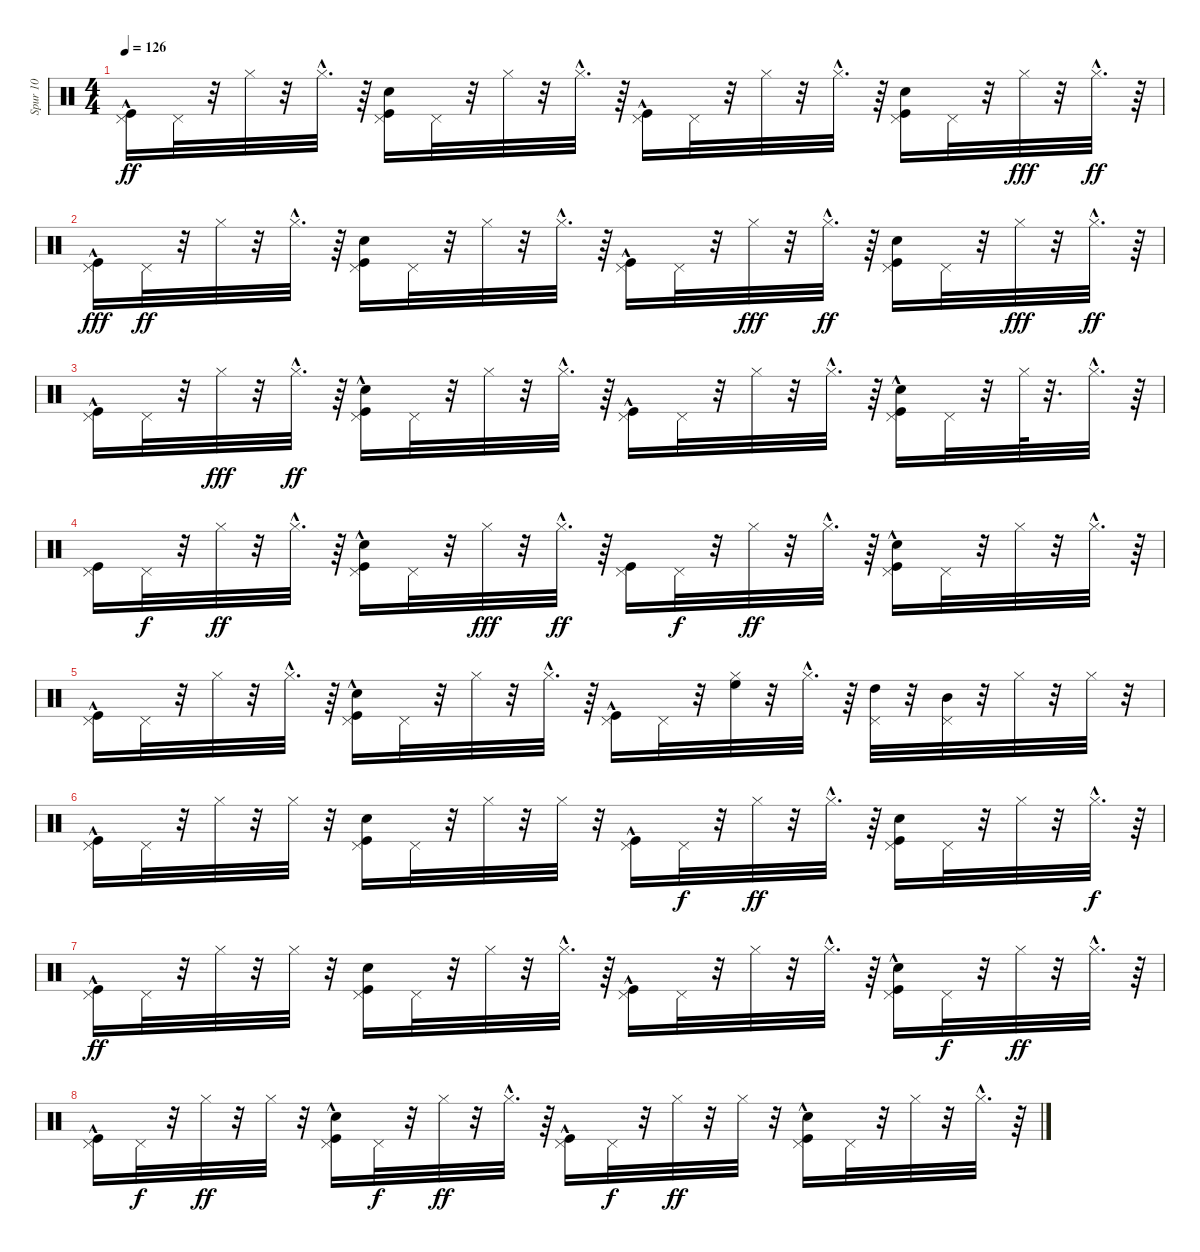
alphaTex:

\track ("Spur 10" "Spur 10") {instrument percussion}
\staff {score}
\articulation defaults
\ts (4 4)
\tempo 126
\clef neutral
\ks c
("Kick (hit)"{hac} "Pedal Hi-Hat (hit)").16{dy ff} "Pedal Hi-Hat (hit)".32 r.32 "Hi-Hat (closed)".32 r.32 "Hi-Hat (closed)"{hac}.32{d} r.64 ("Kick (hit)" "Snare (hit) 2" "Pedal Hi-Hat (hit)").16 "Pedal Hi-Hat (hit)".32 r.32 "Hi-Hat (closed)".32 r.32 "Hi-Hat (closed)"{hac}.32{d} r.64 ("Kick (hit)"{hac} "Pedal Hi-Hat (hit)").16 "Pedal Hi-Hat (hit)".32 r.32 "Hi-Hat (closed)".32 r.32 "Hi-Hat (closed)"{hac}.32{d} r.64 ("Kick (hit)" "Snare (hit) 2" "Pedal Hi-Hat (hit)").16 "Pedal Hi-Hat (hit)".32 r.32 "Hi-Hat (closed)".32{dy fff} r.32 "Hi-Hat (closed)"{hac}.32{d dy ff} r.64 |
("Kick (hit)"{hac} "Pedal Hi-Hat (hit)").16{dy fff} "Pedal Hi-Hat (hit)".32{dy ff} r.32 "Hi-Hat (closed)".32 r.32 "Hi-Hat (closed)"{hac}.32{d} r.64 ("Kick (hit)" "Snare (hit) 2" "Pedal Hi-Hat (hit)").16 "Pedal Hi-Hat (hit)".32 r.32 "Hi-Hat (closed)".32 r.32 "Hi-Hat (closed)"{hac}.32{d} r.64 ("Kick (hit)"{hac} "Pedal Hi-Hat (hit)").16 "Pedal Hi-Hat (hit)".32 r.32 "Hi-Hat (closed)".32{dy fff} r.32 "Hi-Hat (closed)"{hac}.32{d dy ff} r.64 ("Kick (hit)" "Snare (hit) 2" "Pedal Hi-Hat (hit)").16 "Pedal Hi-Hat (hit)".32 r.32 "Hi-Hat (closed)".32{dy fff} r.32 "Hi-Hat (closed)"{hac}.32{d dy ff} r.64 |
("Kick (hit)"{hac} "Pedal Hi-Hat (hit)").16 "Pedal Hi-Hat (hit)".32 r.32 "Hi-Hat (closed)".32{dy fff} r.32 "Hi-Hat (closed)"{hac}.32{d dy ff} r.64 ("Kick (hit)"{hac} "Snare (hit) 2" "Pedal Hi-Hat (hit)").16 "Pedal Hi-Hat (hit)".32 r.32 "Hi-Hat (closed)".32 r.32 "Hi-Hat (closed)"{hac}.32{d} r.64 ("Kick (hit)"{hac} "Pedal Hi-Hat (hit)").16 "Pedal Hi-Hat (hit)".32 r.32 "Hi-Hat (closed)".32 r.32 "Hi-Hat (closed)"{hac}.32{d} r.64 ("Kick (hit)"{hac} "Snare (hit) 2" "Pedal Hi-Hat (hit)").16 "Pedal Hi-Hat (hit)".32 r.32 "Hi-Hat (closed)".64 r.32{d} "Hi-Hat (closed)"{hac}.32{d} r.64 |
("Kick (hit)" "Pedal Hi-Hat (hit)").16 "Pedal Hi-Hat (hit)".32{dy f} r.32 "Hi-Hat (closed)".32{dy ff} r.32 "Hi-Hat (closed)"{hac}.32{d} r.64 ("Kick (hit)"{hac} "Snare (hit) 2" "Pedal Hi-Hat (hit)").16 "Pedal Hi-Hat (hit)".32 r.32 "Hi-Hat (closed)".32{dy fff} r.32 "Hi-Hat (closed)"{hac}.32{d dy ff} r.64 ("Kick (hit)" "Pedal Hi-Hat (hit)").16 "Pedal Hi-Hat (hit)".32{dy f} r.32 "Hi-Hat (closed)".32{dy ff} r.32 "Hi-Hat (closed)"{hac}.32{d} r.64 ("Snare (hit) 2"{hac} "Kick (hit)" "Pedal Hi-Hat (hit)").16 "Pedal Hi-Hat (hit)".32 r.32 "Hi-Hat (closed)".32 r.32 "Hi-Hat (closed)"{hac}.32{d} r.64 |
("Kick (hit)"{hac} "Pedal Hi-Hat (hit)").16 "Pedal Hi-Hat (hit)".32 r.32 "Hi-Hat (closed)".32 r.32 "Hi-Hat (closed)"{hac}.32{d} r.64 ("Kick (hit)"{hac} "Snare (hit) 2"{hac} "Pedal Hi-Hat (hit)").16 "Pedal Hi-Hat (hit)".32 r.32 "Hi-Hat (closed)".32 r.32 "Hi-Hat (closed)"{hac}.32{d} r.64 ("Kick (hit)"{hac} "Pedal Hi-Hat (hit)").16 "Pedal Hi-Hat (hit)".32 r.32 ("High Floor Tom (hit)" "Hi-Hat (closed)").32 r.32 "Hi-Hat (closed)"{hac}.32{d} r.64 ("High Tom (hit)" "Pedal Hi-Hat (hit)").32 r.32 ("Mid Tom (hit)" "Pedal Hi-Hat (hit)").32 r.32 "Hi-Hat (closed)".32 r.32 "Hi-Hat (closed)".32 r.32 |
("Kick (hit)"{hac} "Pedal Hi-Hat (hit)").16 "Pedal Hi-Hat (hit)".32 r.32 "Hi-Hat (closed)".32 r.32 "Hi-Hat (closed)".32 r.32 ("Kick (hit)" "Snare (hit) 2" "Pedal Hi-Hat (hit)").16 "Pedal Hi-Hat (hit)".32 r.32 "Hi-Hat (closed)".32 r.32 "Hi-Hat (closed)".32 r.32 ("Kick (hit)"{hac} "Pedal Hi-Hat (hit)").16 "Pedal Hi-Hat (hit)".32{dy f} r.32 "Hi-Hat (closed)".32{dy ff} r.32 "Hi-Hat (closed)"{hac}.32{d} r.64 ("Kick (hit)" "Snare (hit) 2" "Pedal Hi-Hat (hit)").16 "Pedal Hi-Hat (hit)".32 r.32 "Hi-Hat (closed)".32 r.32 "Hi-Hat (closed)"{hac}.32{d dy f} r.64 |
("Kick (hit)"{hac} "Pedal Hi-Hat (hit)").16{dy ff} "Pedal Hi-Hat (hit)".32 r.32 "Hi-Hat (closed)".32 r.32 "Hi-Hat (closed)".32 r.32 ("Kick (hit)" "Snare (hit) 2" "Pedal Hi-Hat (hit)").16 "Pedal Hi-Hat (hit)".32 r.32 "Hi-Hat (closed)".32 r.32 "Hi-Hat (closed)"{hac}.32{d} r.64 ("Kick (hit)"{hac} "Pedal Hi-Hat (hit)").16 "Pedal Hi-Hat (hit)".32 r.32 "Hi-Hat (closed)".32 r.32 "Hi-Hat (closed)"{hac}.32{d} r.64 ("Kick (hit)"{hac} "Snare (hit) 2" "Pedal Hi-Hat (hit)").16 "Pedal Hi-Hat (hit)".32{dy f} r.32 "Hi-Hat (closed)".32{dy ff} r.32 "Hi-Hat (closed)"{hac}.32{d} r.64 |
("Kick (hit)"{hac} "Pedal Hi-Hat (hit)").16 "Pedal Hi-Hat (hit)".32{dy f} r.32 "Hi-Hat (closed)".32{dy ff} r.32 "Hi-Hat (closed)".32 r.32 ("Kick (hit)"{hac} "Snare (hit) 2"{hac} "Pedal Hi-Hat (hit)").16 "Pedal Hi-Hat (hit)".32{dy f} r.32 "Hi-Hat (closed)".32{dy ff} r.32 "Hi-Hat (closed)"{hac}.32{d} r.64 ("Kick (hit)"{hac} "Pedal Hi-Hat (hit)").16 "Pedal Hi-Hat (hit)".32{dy f} r.32 "Hi-Hat (closed)".32{dy ff} r.32 "Hi-Hat (closed)".32 r.32 ("Kick (hit)"{hac} "Snare (hit) 2" "Pedal Hi-Hat (hit)").16 "Pedal Hi-Hat (hit)".32 r.32 "Hi-Hat (closed)".32 r.32 "Hi-Hat (closed)"{hac}.32{d} r.64
